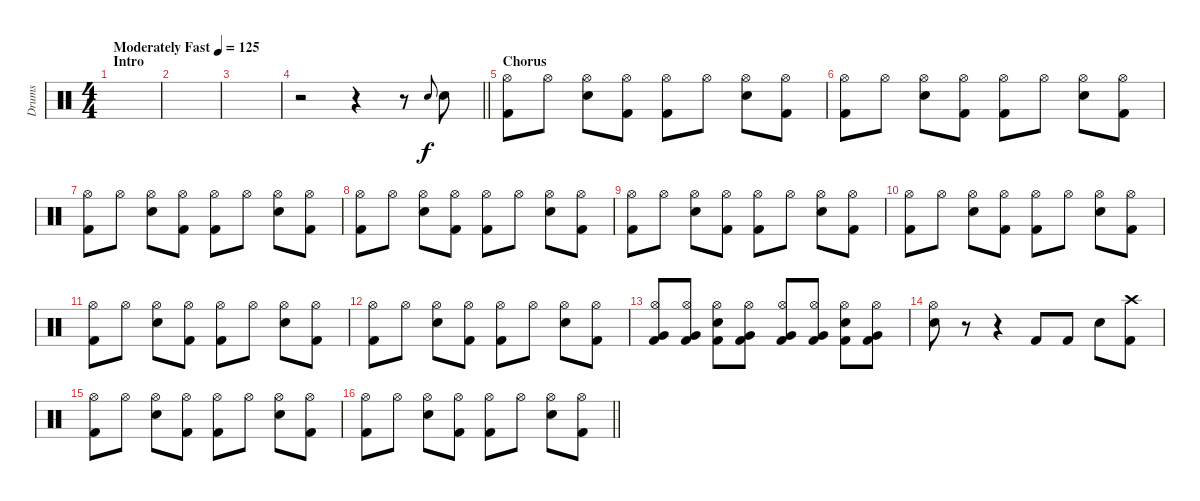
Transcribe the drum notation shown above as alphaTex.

\track ("Drums" "Drums") {instrument percussion}
\staff {score}
\articulation defaults
\ts (4 4)
\section ("" "Intro")
\tempo (125 "Moderately Fast")
\clef neutral
\ks c
|
|
|
\barLineRight lightlight
r.2 r.4 r.8 "Snare (hit) 2"{h}.8{gr onbeat} "Electric Snare (hit)".8 |
\section ("" "Chorus")
("Kick (hit) 2" "Hi-Hat (open)").8 "Hi-Hat (open)".8 ("Electric Snare (hit)" "Hi-Hat (open)").8 ("Kick (hit) 2" "Hi-Hat (open)").8 ("Kick (hit) 2" "Hi-Hat (open)").8 "Hi-Hat (open)".8 ("Electric Snare (hit)" "Hi-Hat (open)").8 ("Kick (hit) 2" "Hi-Hat (open)").8 |
("Kick (hit) 2" "Hi-Hat (open)").8 "Hi-Hat (open)".8 ("Electric Snare (hit)" "Hi-Hat (open)").8 ("Kick (hit) 2" "Hi-Hat (open)").8 ("Kick (hit) 2" "Hi-Hat (open)").8 "Hi-Hat (open)".8 ("Electric Snare (hit)" "Hi-Hat (open)").8 ("Kick (hit) 2" "Hi-Hat (open)").8 |
("Kick (hit) 2" "Hi-Hat (open)").8 "Hi-Hat (open)".8 ("Electric Snare (hit)" "Hi-Hat (open)").8 ("Kick (hit) 2" "Hi-Hat (open)").8 ("Kick (hit) 2" "Hi-Hat (open)").8 "Hi-Hat (open)".8 ("Electric Snare (hit)" "Hi-Hat (open)").8 ("Kick (hit) 2" "Hi-Hat (open)").8 |
("Kick (hit) 2" "Hi-Hat (open)").8 "Hi-Hat (open)".8 ("Electric Snare (hit)" "Hi-Hat (open)").8 ("Kick (hit) 2" "Hi-Hat (open)").8 ("Kick (hit) 2" "Hi-Hat (open)").8 "Hi-Hat (open)".8 ("Electric Snare (hit)" "Hi-Hat (open)").8 ("Kick (hit) 2" "Hi-Hat (open)").8 |
("Kick (hit) 2" "Hi-Hat (open)").8 "Hi-Hat (open)".8 ("Electric Snare (hit)" "Hi-Hat (open)").8 ("Kick (hit) 2" "Hi-Hat (open)").8 ("Kick (hit) 2" "Hi-Hat (open)").8 "Hi-Hat (open)".8 ("Electric Snare (hit)" "Hi-Hat (open)").8 ("Kick (hit) 2" "Hi-Hat (open)").8 |
("Kick (hit) 2" "Hi-Hat (open)").8 "Hi-Hat (open)".8 ("Electric Snare (hit)" "Hi-Hat (open)").8 ("Kick (hit) 2" "Hi-Hat (open)").8 ("Kick (hit) 2" "Hi-Hat (open)").8 "Hi-Hat (open)".8 ("Electric Snare (hit)" "Hi-Hat (open)").8 ("Kick (hit) 2" "Hi-Hat (open)").8 |
("Kick (hit) 2" "Hi-Hat (open)").8 "Hi-Hat (open)".8 ("Electric Snare (hit)" "Hi-Hat (open)").8 ("Kick (hit) 2" "Hi-Hat (open)").8 ("Kick (hit) 2" "Hi-Hat (open)").8 "Hi-Hat (open)".8 ("Electric Snare (hit)" "Hi-Hat (open)").8 ("Kick (hit) 2" "Hi-Hat (open)").8 |
("Kick (hit) 2" "Hi-Hat (open)").8 "Hi-Hat (open)".8 ("Electric Snare (hit)" "Hi-Hat (open)").8 ("Kick (hit) 2" "Hi-Hat (open)").8 ("Kick (hit) 2" "Hi-Hat (open)").8 "Hi-Hat (open)".8 ("Electric Snare (hit)" "Hi-Hat (open)").8 ("Kick (hit) 2" "Hi-Hat (open)").8 |
("Very Low Tom (hit)" "Kick (hit) 2" "Hi-Hat (open)").8 ("Very Low Tom (hit)" "Kick (hit) 2" "Hi-Hat (open)").8 ("Electric Snare (hit)" "Kick (hit) 2" "Hi-Hat (open)").8 ("Very Low Tom (hit)" "Kick (hit) 2" "Hi-Hat (open)").8 ("Very Low Tom (hit)" "Kick (hit) 2" "Hi-Hat (open)").8 ("Very Low Tom (hit)" "Kick (hit) 2" "Hi-Hat (open)").8 ("Electric Snare (hit)" "Kick (hit) 2" "Hi-Hat (open)").8 ("Very Low Tom (hit)" "Kick (hit) 2" "Hi-Hat (open)").8 |
("Electric Snare (hit)" "Hi-Hat (open)").8 r.8 r.4 "Kick (hit) 2".8 "Kick (hit) 2".8 "Electric Snare (hit)".8 ("Kick (hit) 2" "Crash high (hit)").8 |
("Kick (hit) 2" "Hi-Hat (open)").8 "Hi-Hat (open)".8 ("Electric Snare (hit)" "Hi-Hat (open)").8 ("Kick (hit) 2" "Hi-Hat (open)").8 ("Kick (hit) 2" "Hi-Hat (open)").8 "Hi-Hat (open)".8 ("Electric Snare (hit)" "Hi-Hat (open)").8 ("Kick (hit) 2" "Hi-Hat (open)").8 |
\barLineRight lightlight
("Kick (hit) 2" "Hi-Hat (open)").8 "Hi-Hat (open)".8 ("Electric Snare (hit)" "Hi-Hat (open)").8 ("Kick (hit) 2" "Hi-Hat (open)").8 ("Kick (hit) 2" "Hi-Hat (open)").8 "Hi-Hat (open)".8 ("Electric Snare (hit)" "Hi-Hat (open)").8 ("Kick (hit) 2" "Hi-Hat (open)").8
